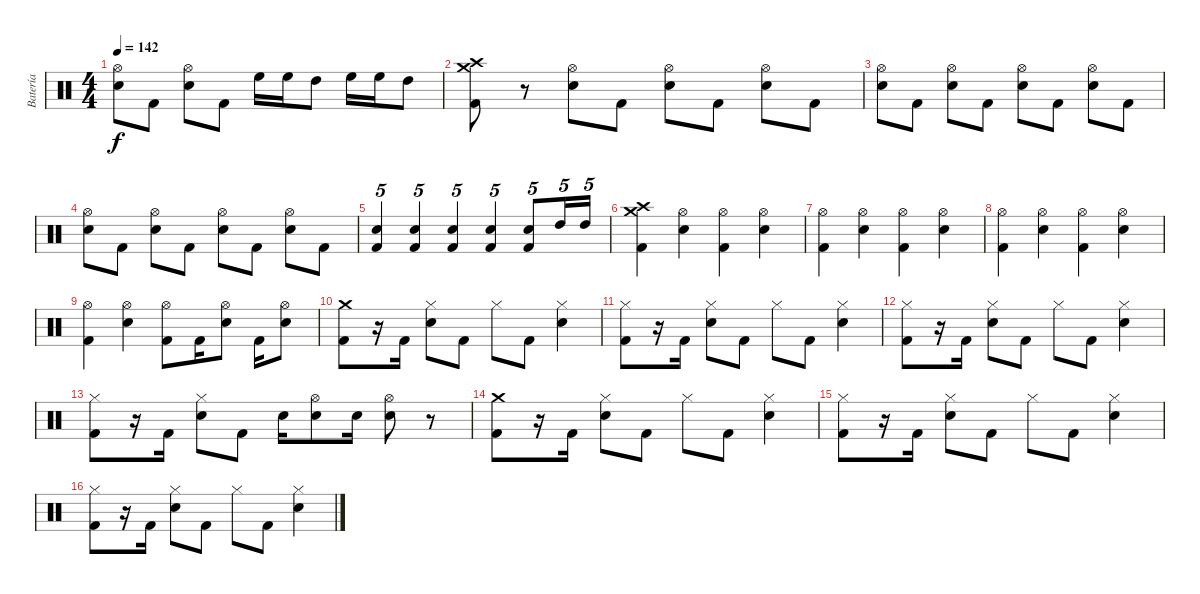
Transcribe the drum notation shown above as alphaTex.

\track ("Batería" "Batería") {instrument percussion}
\staff {score}
\articulation defaults
\ts (4 4)
\tempo 142
\clef neutral
\ks c
("Hi-Hat (open)" "Electric Snare (hit)").8{dy f} "Kick (hit) 2".8 ("Hi-Hat (open)" "Electric Snare (hit)").8 "Kick (hit) 2".8 "High Floor Tom (hit)".16 "High Floor Tom (hit)".16 "High Tom (hit)".8 "High Floor Tom (hit)".16 "High Floor Tom (hit)".16 "High Tom (hit)".8 |
("Crash high (hit)" "Crash medium (hit)" "Kick (hit) 2").8 r.8 ("Hi-Hat (open)" "Electric Snare (hit)").8 "Kick (hit) 2".8 ("Hi-Hat (open)" "Electric Snare (hit)").8 "Kick (hit) 2".8 ("Hi-Hat (open)" "Electric Snare (hit)").8 "Kick (hit) 2".8 |
("Hi-Hat (open)" "Electric Snare (hit)").8 "Kick (hit) 2".8 ("Hi-Hat (open)" "Electric Snare (hit)").8 "Kick (hit) 2".8 ("Hi-Hat (open)" "Electric Snare (hit)").8 "Kick (hit) 2".8 ("Hi-Hat (open)" "Electric Snare (hit)").8 "Kick (hit) 2".8 |
("Hi-Hat (open)" "Electric Snare (hit)").8 "Kick (hit) 2".8 ("Hi-Hat (open)" "Electric Snare (hit)").8 "Kick (hit) 2".8 ("Hi-Hat (open)" "Electric Snare (hit)").8 "Kick (hit) 2".8 ("Hi-Hat (open)" "Electric Snare (hit)").8 "Kick (hit) 2".8 |
("Electric Snare (hit)" "Kick (hit) 2").4{tu (5 4)} ("Electric Snare (hit)" "Kick (hit) 2").4{tu (5 4)} ("Electric Snare (hit)" "Kick (hit) 2").4{tu (5 4)} ("Electric Snare (hit)" "Kick (hit) 2").4{tu (5 4)} ("Electric Snare (hit)" "Kick (hit) 2").8{tu (5 4)} "High Tom (hit)".16{tu (5 4)} "High Tom (hit)".16{tu (5 4)} |
("Crash high (hit)" "Crash medium (hit)" "Kick (hit) 2").4 ("Hi-Hat (open)" "Electric Snare (hit)").4 ("Hi-Hat (open)" "Kick (hit) 2").4 ("Hi-Hat (open)" "Electric Snare (hit)").4 |
("Hi-Hat (open)" "Kick (hit) 2").4 ("Hi-Hat (open)" "Electric Snare (hit)").4 ("Hi-Hat (open)" "Kick (hit) 2").4 ("Hi-Hat (open)" "Electric Snare (hit)").4 |
("Hi-Hat (open)" "Kick (hit) 2").4 ("Hi-Hat (open)" "Electric Snare (hit)").4 ("Hi-Hat (open)" "Kick (hit) 2").4 ("Hi-Hat (open)" "Electric Snare (hit)").4 |
("Hi-Hat (open)" "Kick (hit) 2").4 ("Hi-Hat (open)" "Electric Snare (hit)").4 ("Hi-Hat (open)" "Kick (hit) 2").8 "Kick (hit) 2".16 ("Hi-Hat (open)" "Electric Snare (hit)").8 "Kick (hit) 2".16 ("Hi-Hat (open)" "Electric Snare (hit)").8 |
("Crash medium (hit)" "Kick (hit) 2").8 r.16 "Kick (hit) 2".16 ("Hi-Hat (closed)" "Electric Snare (hit)").8 "Kick (hit) 2".8 "Hi-Hat (closed)".8 "Kick (hit) 2".8 ("Hi-Hat (closed)" "Electric Snare (hit)").4 |
("Hi-Hat (closed)" "Kick (hit) 2").8 r.16 "Kick (hit) 2".16 ("Hi-Hat (closed)" "Electric Snare (hit)").8 "Kick (hit) 2".8 "Hi-Hat (closed)".8 "Kick (hit) 2".8 ("Hi-Hat (closed)" "Electric Snare (hit)").4 |
("Hi-Hat (closed)" "Kick (hit) 2").8 r.16 "Kick (hit) 2".16 ("Hi-Hat (closed)" "Electric Snare (hit)").8 "Kick (hit) 2".8 "Hi-Hat (closed)".8 "Kick (hit) 2".8 ("Hi-Hat (closed)" "Electric Snare (hit)").4 |
("Hi-Hat (closed)" "Kick (hit) 2").8 r.16 "Kick (hit) 2".16 ("Hi-Hat (closed)" "Electric Snare (hit)").8 "Kick (hit) 2".8 "Electric Snare (hit)".16 ("Hi-Hat (open)" "Electric Snare (hit)").8 "Electric Snare (hit)".16 ("Hi-Hat (open)" "Electric Snare (hit)").8 r.8 |
("Crash medium (hit)" "Kick (hit) 2").8 r.16 "Kick (hit) 2".16 ("Hi-Hat (closed)" "Electric Snare (hit)").8 "Kick (hit) 2".8 "Hi-Hat (closed)".8 "Kick (hit) 2".8 ("Hi-Hat (closed)" "Electric Snare (hit)").4 |
("Hi-Hat (closed)" "Kick (hit) 2").8 r.16 "Kick (hit) 2".16 ("Hi-Hat (closed)" "Electric Snare (hit)").8 "Kick (hit) 2".8 "Hi-Hat (closed)".8 "Kick (hit) 2".8 ("Hi-Hat (closed)" "Electric Snare (hit)").4 |
("Hi-Hat (closed)" "Kick (hit) 2").8 r.16 "Kick (hit) 2".16 ("Hi-Hat (closed)" "Electric Snare (hit)").8 "Kick (hit) 2".8 "Hi-Hat (closed)".8 "Kick (hit) 2".8 ("Hi-Hat (closed)" "Electric Snare (hit)").4
